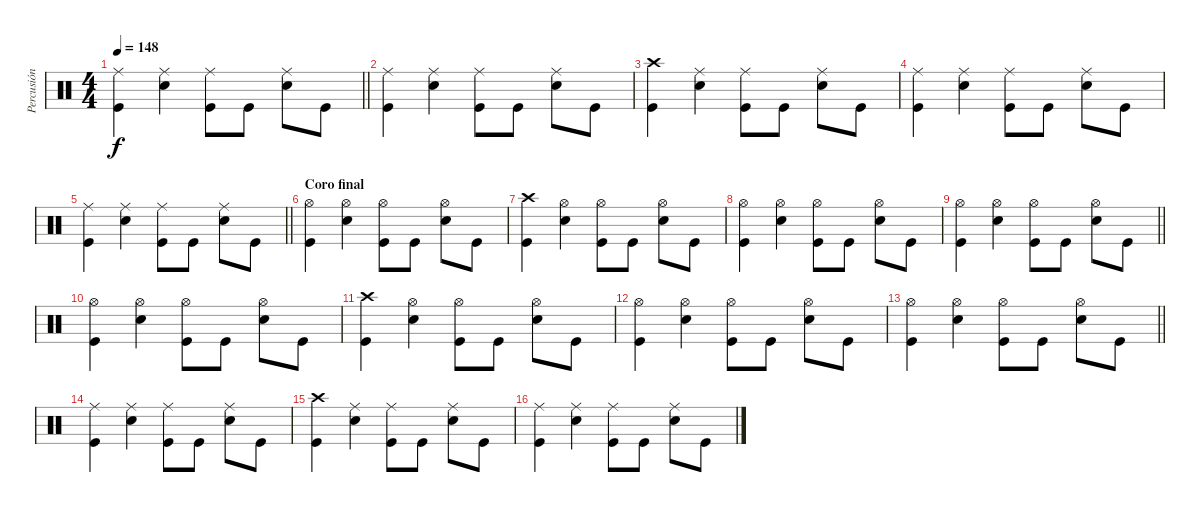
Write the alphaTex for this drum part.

\track ("Percusión" "Percusión") {instrument percussion}
\staff {score}
\articulation defaults
\ts (4 4)
\tempo 148
\clef neutral
\barLineRight lightlight
\ks c
("Ride (middle)" "Kick (hit)").4{dy f} ("Ride (middle)" "Electric Snare (hit)").4 ("Ride (middle)" "Kick (hit)").8 "Kick (hit)".8 ("Ride (middle)" "Electric Snare (hit)").8 "Kick (hit)".8 |
("Ride (middle)" "Kick (hit)").4 ("Ride (middle)" "Electric Snare (hit)").4 ("Ride (middle)" "Kick (hit)").8 "Kick (hit)".8 ("Ride (middle)" "Electric Snare (hit)").8 "Kick (hit)".8 |
("Crash high (hit)" "Kick (hit)").4 ("Ride (middle)" "Electric Snare (hit)").4 ("Ride (middle)" "Kick (hit)").8 "Kick (hit)".8 ("Ride (middle)" "Electric Snare (hit)").8 "Kick (hit)".8 |
("Ride (middle)" "Kick (hit)").4 ("Ride (middle)" "Electric Snare (hit)").4 ("Ride (middle)" "Kick (hit)").8 "Kick (hit)".8 ("Ride (middle)" "Electric Snare (hit)").8 "Kick (hit)".8 |
\barLineRight lightlight
("Ride (middle)" "Kick (hit)").4 ("Ride (middle)" "Electric Snare (hit)").4 ("Ride (middle)" "Kick (hit)").8 "Kick (hit)".8 ("Ride (middle)" "Electric Snare (hit)").8 "Kick (hit)".8 |
\section ("" "Coro final")
("Hi-Hat (open)" "Kick (hit)").4 ("Hi-Hat (open)" "Electric Snare (hit)").4 ("Hi-Hat (open)" "Kick (hit)").8 "Kick (hit)".8 ("Hi-Hat (open)" "Electric Snare (hit)").8 "Kick (hit)".8 |
("Crash high (hit)" "Kick (hit)").4 ("Hi-Hat (open)" "Electric Snare (hit)").4 ("Hi-Hat (open)" "Kick (hit)").8 "Kick (hit)".8 ("Hi-Hat (open)" "Electric Snare (hit)").8 "Kick (hit)".8 |
("Hi-Hat (open)" "Kick (hit)").4 ("Hi-Hat (open)" "Electric Snare (hit)").4 ("Hi-Hat (open)" "Kick (hit)").8 "Kick (hit)".8 ("Hi-Hat (open)" "Electric Snare (hit)").8 "Kick (hit)".8 |
\barLineRight lightlight
("Hi-Hat (open)" "Kick (hit)").4 ("Hi-Hat (open)" "Electric Snare (hit)").4 ("Hi-Hat (open)" "Kick (hit)").8 "Kick (hit)".8 ("Hi-Hat (open)" "Electric Snare (hit)").8 "Kick (hit)".8 |
("Hi-Hat (open)" "Kick (hit)").4 ("Hi-Hat (open)" "Electric Snare (hit)").4 ("Hi-Hat (open)" "Kick (hit)").8 "Kick (hit)".8 ("Hi-Hat (open)" "Electric Snare (hit)").8 "Kick (hit)".8 |
("Crash high (hit)" "Kick (hit)").4 ("Hi-Hat (open)" "Electric Snare (hit)").4 ("Hi-Hat (open)" "Kick (hit)").8 "Kick (hit)".8 ("Hi-Hat (open)" "Electric Snare (hit)").8 "Kick (hit)".8 |
("Hi-Hat (open)" "Kick (hit)").4 ("Hi-Hat (open)" "Electric Snare (hit)").4 ("Hi-Hat (open)" "Kick (hit)").8 "Kick (hit)".8 ("Hi-Hat (open)" "Electric Snare (hit)").8 "Kick (hit)".8 |
\barLineRight lightlight
("Hi-Hat (open)" "Kick (hit)").4 ("Hi-Hat (open)" "Electric Snare (hit)").4 ("Hi-Hat (open)" "Kick (hit)").8 "Kick (hit)".8 ("Hi-Hat (open)" "Electric Snare (hit)").8 "Kick (hit)".8 |
\section ("" "")
("Ride (middle)" "Kick (hit)").4 ("Ride (middle)" "Electric Snare (hit)").4 ("Ride (middle)" "Kick (hit)").8 "Kick (hit)".8 ("Ride (middle)" "Electric Snare (hit)").8 "Kick (hit)".8 |
("Crash high (hit)" "Kick (hit)").4 ("Ride (middle)" "Electric Snare (hit)").4 ("Ride (middle)" "Kick (hit)").8 "Kick (hit)".8 ("Ride (middle)" "Electric Snare (hit)").8 "Kick (hit)".8 |
("Ride (middle)" "Kick (hit)").4 ("Ride (middle)" "Electric Snare (hit)").4 ("Ride (middle)" "Kick (hit)").8 "Kick (hit)".8 ("Ride (middle)" "Electric Snare (hit)").8 "Kick (hit)".8
